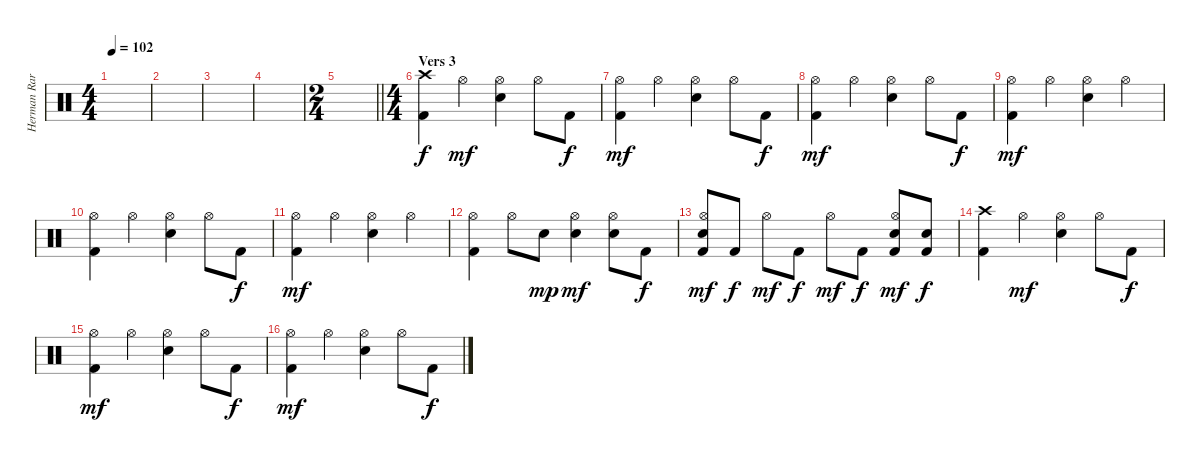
\track ("Herman Rarebell" "Herman Rar") {instrument percussion}
\staff {score}
\articulation defaults
\ts (4 4)
\tempo 102
\clef neutral
\ks c
|
|
|
|
\ts (2 4)
\barLineRight lightlight
|
\ts (4 4)
\section ("" "Vers 3")
("Crash high (hit)" "Kick (hit) 2").4 "Hi-Hat (open)".4{dy mf} ("Hi-Hat (open)" "Electric Snare (hit)").4 "Hi-Hat (open)".8 "Kick (hit) 2".8{dy f} |
("Hi-Hat (open)" "Kick (hit) 2").4{dy mf} "Hi-Hat (open)".4 ("Hi-Hat (open)" "Electric Snare (hit)").4 "Hi-Hat (open)".8 "Kick (hit) 2".8{dy f} |
("Hi-Hat (open)" "Kick (hit) 2").4{dy mf} "Hi-Hat (open)".4 ("Hi-Hat (open)" "Electric Snare (hit)").4 "Hi-Hat (open)".8 "Kick (hit) 2".8{dy f} |
("Hi-Hat (open)" "Kick (hit) 2").4{dy mf} "Hi-Hat (open)".4 ("Hi-Hat (open)" "Electric Snare (hit)").4 "Hi-Hat (open)".4 |
("Hi-Hat (open)" "Kick (hit) 2").4 "Hi-Hat (open)".4 ("Hi-Hat (open)" "Electric Snare (hit)").4 "Hi-Hat (open)".8 "Kick (hit) 2".8{dy f} |
("Hi-Hat (open)" "Kick (hit) 2").4{dy mf} "Hi-Hat (open)".4 ("Hi-Hat (open)" "Electric Snare (hit)").4 "Hi-Hat (open)".4 |
("Hi-Hat (open)" "Kick (hit) 2").4 "Hi-Hat (open)".8 "Electric Snare (hit)".8{dy mp} ("Hi-Hat (open)" "Electric Snare (hit)").4{dy mf} ("Hi-Hat (open)" "Electric Snare (hit)").8 "Kick (hit) 2".8{dy f} |
("Hi-Hat (open)" "Electric Snare (hit)" "Kick (hit) 2").8{dy mf} "Kick (hit) 2".8{dy f} "Hi-Hat (open)".8{dy mf} "Kick (hit) 2".8{dy f} "Hi-Hat (open)".8{dy mf} "Kick (hit) 2".8{dy f} ("Hi-Hat (open)" "Electric Snare (hit)" "Kick (hit) 2").8{dy mf} ("Electric Snare (hit)" "Kick (hit) 2").8{dy f} |
("Crash high (hit)" "Kick (hit) 2").4 "Hi-Hat (open)".4{dy mf} ("Hi-Hat (open)" "Electric Snare (hit)").4 "Hi-Hat (open)".8 "Kick (hit) 2".8{dy f} |
("Hi-Hat (open)" "Kick (hit) 2").4{dy mf} "Hi-Hat (open)".4 ("Hi-Hat (open)" "Electric Snare (hit)").4 "Hi-Hat (open)".8 "Kick (hit) 2".8{dy f} |
("Hi-Hat (open)" "Kick (hit) 2").4{dy mf} "Hi-Hat (open)".4 ("Hi-Hat (open)" "Electric Snare (hit)").4 "Hi-Hat (open)".8 "Kick (hit) 2".8{dy f}
